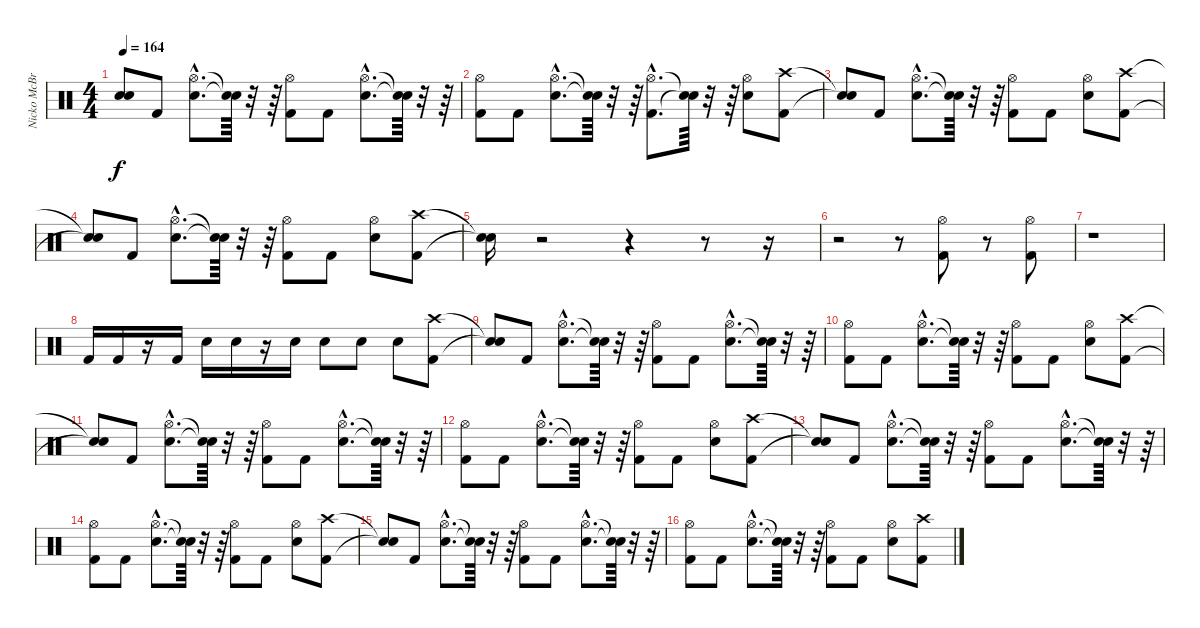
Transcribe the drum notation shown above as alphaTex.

\track ("Nicko McBrian (Drums)" "Nicko McBr") {instrument percussion}
\staff {score}
\articulation defaults
\ts (4 4)
\tempo 164
\clef neutral
\ks c
("Snare (hit)"{t} "Snare (hit)"{t}).8{dy f} "Kick (hit) 2".8 ("Snare (hit) 2"{hac} "Hi-Hat (open)"{hac}).8{d} ("Snare (hit)"{t} "Snare (hit)"{t}).64 r.32 r.64 ("Kick (hit) 2" "Hi-Hat (open)").8 "Kick (hit) 2".8 ("Snare (hit) 2"{hac} "Hi-Hat (open)"{hac}).8{d} ("Snare (hit)"{t} "Snare (hit)"{t}).64 r.32 r.64 |
("Kick (hit) 2" "Hi-Hat (open)").8 "Kick (hit) 2".8 ("Snare (hit) 2"{hac} "Hi-Hat (open)"{hac}).8{d} ("Snare (hit)"{t} "Snare (hit)"{t}).64 r.32 r.64 ("Kick (hit) 2"{hac} "Hi-Hat (open)"{hac}).8{d} ("Snare (hit)"{t} "Snare (hit)"{t}).64 r.32 r.64 ("Snare (hit) 2" "Hi-Hat (open)").8 ("Kick (hit) 2" "Crash high (hit)").8 |
("Snare (hit)"{t} "Snare (hit)"{t}).8 "Kick (hit) 2".8 ("Snare (hit) 2"{hac} "Hi-Hat (open)"{hac}).8{d} ("Snare (hit)"{t} "Snare (hit)"{t}).64 r.32 r.64 ("Kick (hit) 2" "Hi-Hat (open)").8 "Kick (hit) 2".8 ("Snare (hit) 2" "Hi-Hat (open)").8 ("Kick (hit) 2" "Crash high (hit)").8 |
("Snare (hit)"{t} "Snare (hit)"{t}).8 "Kick (hit) 2".8 ("Snare (hit) 2"{hac} "Hi-Hat (open)"{hac}).8{d} ("Snare (hit)"{t} "Snare (hit)"{t}).64 r.32 r.64 ("Kick (hit) 2" "Hi-Hat (open)").8 "Kick (hit) 2".8 ("Snare (hit) 2" "Hi-Hat (open)").8 ("Kick (hit) 2" "Crash high (hit)").8 |
("Snare (hit)"{t} "Snare (hit)"{t}).16 r.2 r.4 r.8 r.16 |
r.2 r.8 ("Kick (hit) 2" "Hi-Hat (open)").8 r.8 ("Kick (hit) 2" "Hi-Hat (open)").8 |
r.1 |
"Kick (hit) 2".16 "Kick (hit) 2".16 r.16 "Kick (hit) 2".16 "Snare (hit) 2".16 "Snare (hit) 2".16 r.16 "Snare (hit) 2".16 "Snare (hit) 2".8 "Snare (hit) 2".8 "Snare (hit) 2".8 ("Kick (hit) 2" "Crash high (hit)").8 |
("Snare (hit)"{t} "Snare (hit)"{t}).8 "Kick (hit) 2".8 ("Snare (hit) 2"{hac} "Hi-Hat (open)"{hac}).8{d} ("Snare (hit)"{t} "Snare (hit)"{t}).64 r.32 r.64 ("Kick (hit) 2" "Hi-Hat (open)").8 "Kick (hit) 2".8 ("Snare (hit) 2"{hac} "Hi-Hat (open)"{hac}).8{d} ("Snare (hit)"{t} "Snare (hit)"{t}).64 r.32 r.64 |
("Kick (hit) 2" "Hi-Hat (open)").8 "Kick (hit) 2".8 ("Snare (hit) 2"{hac} "Hi-Hat (open)"{hac}).8{d} ("Snare (hit)"{t} "Snare (hit)"{t}).64 r.32 r.64 ("Kick (hit) 2" "Hi-Hat (open)").8 "Kick (hit) 2".8 ("Snare (hit) 2" "Hi-Hat (open)").8 ("Kick (hit) 2" "Crash high (hit)").8 |
("Snare (hit)"{t} "Snare (hit)"{t}).8 "Kick (hit) 2".8 ("Snare (hit) 2"{hac} "Hi-Hat (open)"{hac}).8{d} ("Snare (hit)"{t} "Snare (hit)"{t}).64 r.32 r.64 ("Kick (hit) 2" "Hi-Hat (open)").8 "Kick (hit) 2".8 ("Snare (hit) 2"{hac} "Hi-Hat (open)"{hac}).8{d} ("Snare (hit)"{t} "Snare (hit)"{t}).64 r.32 r.64 |
("Kick (hit) 2" "Hi-Hat (open)").8 "Kick (hit) 2".8 ("Snare (hit) 2"{hac} "Hi-Hat (open)"{hac}).8{d} ("Snare (hit)"{t} "Snare (hit)"{t}).64 r.32 r.64 ("Kick (hit) 2" "Hi-Hat (open)").8 "Kick (hit) 2".8 ("Snare (hit) 2" "Hi-Hat (open)").8 ("Kick (hit) 2" "Crash high (hit)").8 |
("Snare (hit)"{t} "Snare (hit)"{t}).8 "Kick (hit) 2".8 ("Snare (hit) 2"{hac} "Hi-Hat (open)"{hac}).8{d} ("Snare (hit)"{t} "Snare (hit)"{t}).64 r.32 r.64 ("Kick (hit) 2" "Hi-Hat (open)").8 "Kick (hit) 2".8 ("Snare (hit) 2"{hac} "Hi-Hat (open)"{hac}).8{d} ("Snare (hit)"{t} "Snare (hit)"{t}).64 r.32 r.64 |
("Kick (hit) 2" "Hi-Hat (open)").8 "Kick (hit) 2".8 ("Snare (hit) 2"{hac} "Hi-Hat (open)"{hac}).8{d} ("Snare (hit)"{t} "Snare (hit)"{t}).64 r.32 r.64 ("Kick (hit) 2" "Hi-Hat (open)").8 "Kick (hit) 2".8 ("Snare (hit) 2" "Hi-Hat (open)").8 ("Kick (hit) 2" "Crash high (hit)").8 |
("Snare (hit)"{t} "Snare (hit)"{t}).8 "Kick (hit) 2".8 ("Snare (hit) 2"{hac} "Hi-Hat (open)"{hac}).8{d} ("Snare (hit)"{t} "Snare (hit)"{t}).64 r.32 r.64 ("Kick (hit) 2" "Hi-Hat (open)").8 "Kick (hit) 2".8 ("Snare (hit) 2"{hac} "Hi-Hat (open)"{hac}).8{d} ("Snare (hit)"{t} "Snare (hit)"{t}).64 r.32 r.64 |
("Kick (hit) 2" "Hi-Hat (open)").8 "Kick (hit) 2".8 ("Snare (hit) 2"{hac} "Hi-Hat (open)"{hac}).8{d} ("Snare (hit)"{t} "Snare (hit)"{t}).64 r.32 r.64 ("Kick (hit) 2" "Hi-Hat (open)").8 "Kick (hit) 2".8 ("Snare (hit) 2" "Hi-Hat (open)").8 ("Kick (hit) 2" "Crash high (hit)").8
